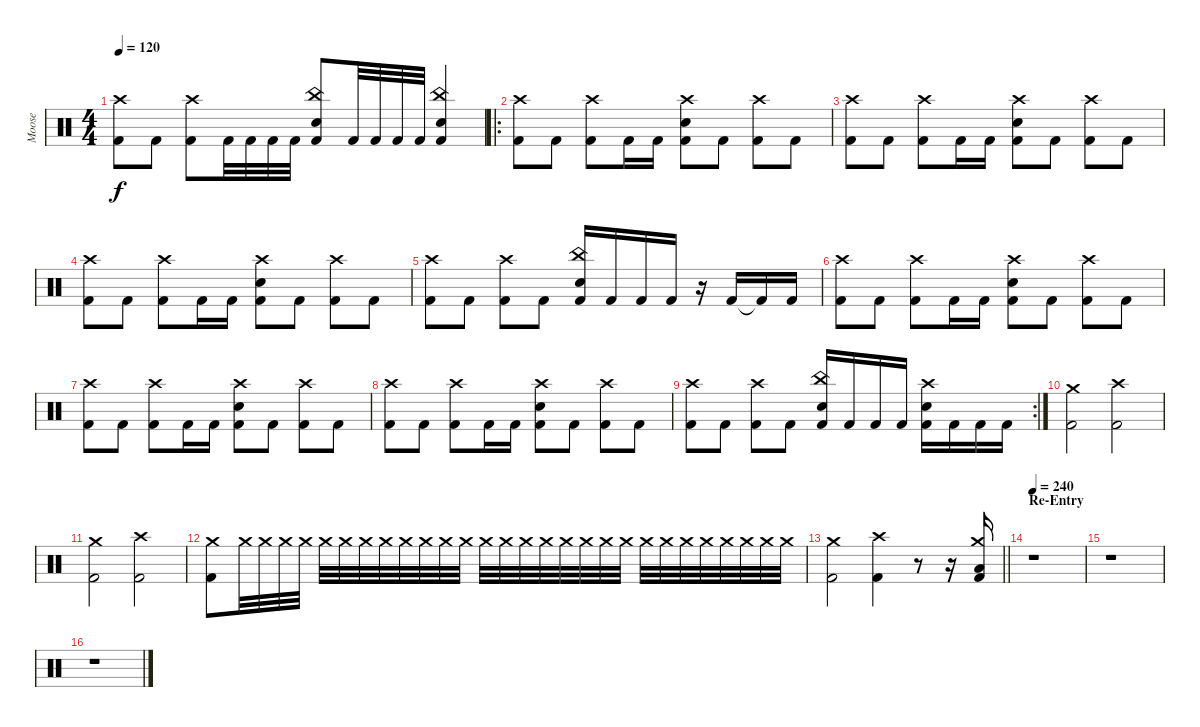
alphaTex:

\track ("Moose" "Moose") {instrument percussion}
\staff {score}
\articulation defaults
\ts (4 4)
\tempo 120
\clef neutral
\ks c
("Crash high (hit)" "Kick (hit) 2").8{dy f} "Kick (hit) 2".8 ("Crash high (hit)" "Kick (hit) 2").8 "Kick (hit) 2".32 "Kick (hit) 2".32 "Kick (hit) 2".32 "Kick (hit) 2".32 ("China (hit)" "Snare (hit) 2" "Kick (hit) 2").8 "Kick (hit) 2".32 "Kick (hit) 2".32 "Kick (hit) 2".32 "Kick (hit) 2".32 ("China (hit)" "Snare (hit) 2" "Kick (hit) 2").4 |
\ro
("Crash high (hit)" "Kick (hit) 2").8 "Kick (hit) 2".8 ("Crash high (hit)" "Kick (hit) 2").8 "Kick (hit) 2".16 "Kick (hit) 2".16 ("Crash high (hit)" "Snare (hit) 2" "Kick (hit) 2").8 "Kick (hit) 2".8 ("Crash high (hit)" "Kick (hit) 2").8 "Kick (hit) 2".8 |
("Crash high (hit)" "Kick (hit) 2").8 "Kick (hit) 2".8 ("Crash high (hit)" "Kick (hit) 2").8 "Kick (hit) 2".16 "Kick (hit) 2".16 ("Crash high (hit)" "Snare (hit) 2" "Kick (hit) 2").8 "Kick (hit) 2".8 ("Crash high (hit)" "Kick (hit) 2").8 "Kick (hit) 2".8 |
("Crash high (hit)" "Kick (hit) 2").8 "Kick (hit) 2".8 ("Crash high (hit)" "Kick (hit) 2").8 "Kick (hit) 2".16 "Kick (hit) 2".16 ("Crash high (hit)" "Snare (hit) 2" "Kick (hit) 2").8 "Kick (hit) 2".8 ("Crash high (hit)" "Kick (hit) 2").8 "Kick (hit) 2".8 |
("Crash high (hit)" "Kick (hit) 2").8 "Kick (hit) 2".8 ("Crash high (hit)" "Kick (hit) 2").8 "Kick (hit) 2".8 ("China (hit)" "Snare (hit) 2" "Kick (hit) 2").16 "Kick (hit) 2".16 "Kick (hit) 2".16 "Kick (hit) 2".16 r.16 "Kick (hit) 2".16 "Kick (hit) 2"{t}.16 "Kick (hit) 2".16 |
("Crash high (hit)" "Kick (hit) 2").8 "Kick (hit) 2".8 ("Crash high (hit)" "Kick (hit) 2").8 "Kick (hit) 2".16 "Kick (hit) 2".16 ("Crash high (hit)" "Snare (hit) 2" "Kick (hit) 2").8 "Kick (hit) 2".8 ("Crash high (hit)" "Kick (hit) 2").8 "Kick (hit) 2".8 |
("Crash high (hit)" "Kick (hit) 2").8 "Kick (hit) 2".8 ("Crash high (hit)" "Kick (hit) 2").8 "Kick (hit) 2".16 "Kick (hit) 2".16 ("Crash high (hit)" "Snare (hit) 2" "Kick (hit) 2").8 "Kick (hit) 2".8 ("Crash high (hit)" "Kick (hit) 2").8 "Kick (hit) 2".8 |
("Crash high (hit)" "Kick (hit) 2").8 "Kick (hit) 2".8 ("Crash high (hit)" "Kick (hit) 2").8 "Kick (hit) 2".16 "Kick (hit) 2".16 ("Crash high (hit)" "Snare (hit) 2" "Kick (hit) 2").8 "Kick (hit) 2".8 ("Crash high (hit)" "Kick (hit) 2").8 "Kick (hit) 2".8 |
\rc 2
("Crash high (hit)" "Kick (hit) 2").8 "Kick (hit) 2".8 ("Crash high (hit)" "Kick (hit) 2").8 "Kick (hit) 2".8 ("China (hit)" "Snare (hit) 2" "Kick (hit) 2").16 "Kick (hit) 2".16 "Kick (hit) 2".16 "Kick (hit) 2".16 ("Crash high (hit)" "Snare (hit) 2" "Kick (hit) 2").16 "Kick (hit) 2".16 "Kick (hit) 2".16 "Kick (hit) 2".16 |
("Crash medium (hit)" "Kick (hit) 2").2 ("Crash high (hit)" "Kick (hit) 2").2 |
("Crash medium (hit)" "Kick (hit) 2").2 ("Crash high (hit)" "Kick (hit) 2").2 |
("Crash medium (hit)" "Kick (hit) 2").8 "Crash medium (hit)".32 "Crash medium (hit)".32 "Crash medium (hit)".32 "Crash medium (hit)".32 "Crash medium (hit)".32 "Crash medium (hit)".32 "Crash medium (hit)".32 "Crash medium (hit)".32 "Crash medium (hit)".32 "Crash medium (hit)".32 "Crash medium (hit)".32 "Crash medium (hit)".32 "Crash medium (hit)".32 "Crash medium (hit)".32 "Crash medium (hit)".32 "Crash medium (hit)".32 "Crash medium (hit)".32 "Crash medium (hit)".32 "Crash medium (hit)".32 "Crash medium (hit)".32 "Crash medium (hit)".32 "Crash medium (hit)".32 "Crash medium (hit)".32 "Crash medium (hit)".32 "Crash medium (hit)".32 "Crash medium (hit)".32 "Crash medium (hit)".32 "Crash medium (hit)".32 |
\barLineRight lightlight
("Crash medium (hit)" "Kick (hit) 2").2 ("Crash high (hit)" "Kick (hit) 2").4 r.8 r.16 ("Crash medium (hit)" "Low Floor Tom (hit)" "Kick (hit) 2").16 |
\section ("" "Re-Entry")
\tempo 240
r.1 |
r.1 |
r.1
